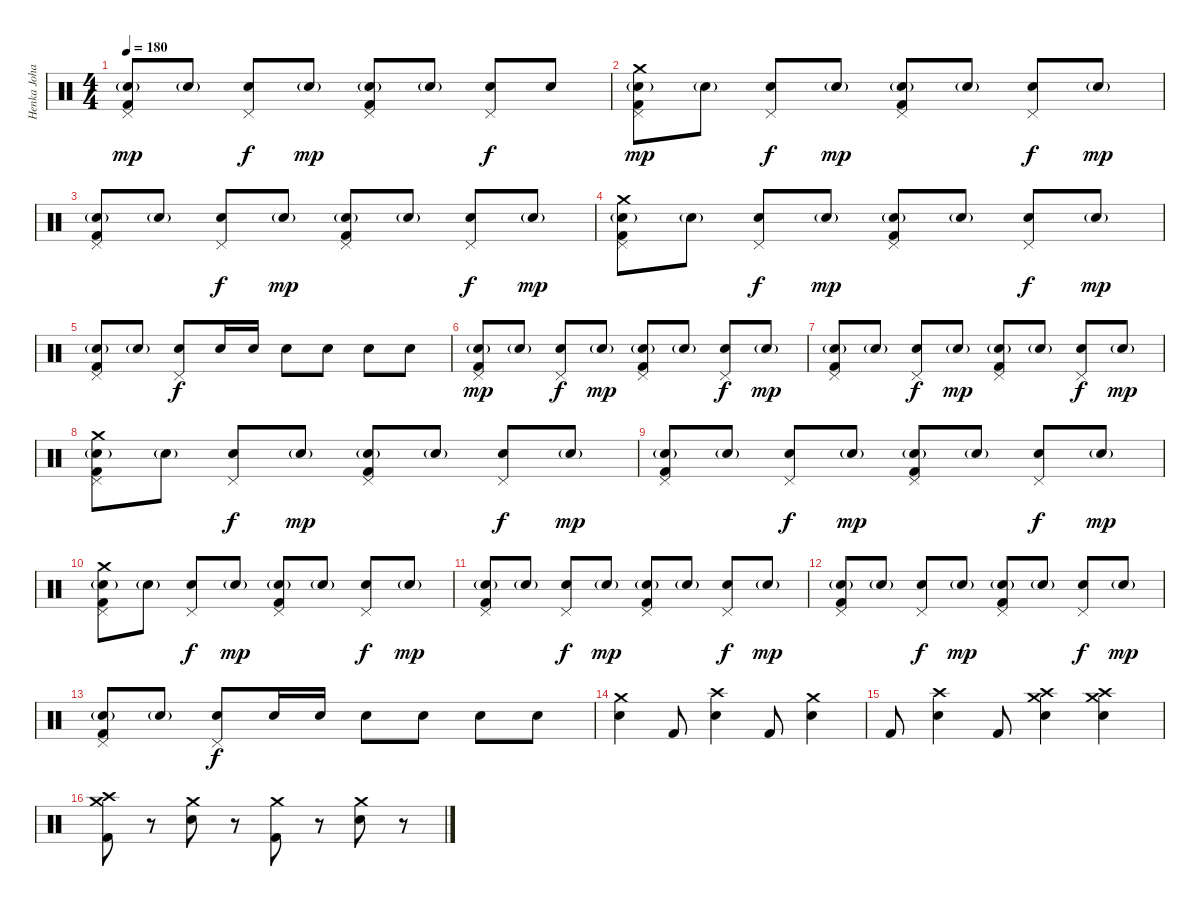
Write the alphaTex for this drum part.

\track ("Henka Johansson" "Henka Joha") {instrument percussion}
\staff {score}
\articulation defaults
\ts (4 4)
\tempo 180
\clef neutral
\ks c
("Pedal Hi-Hat (hit)" "Snare (hit) 2"{g} "Kick (hit) 2").8{dy mp} "Snare (hit) 2"{g}.8 ("Pedal Hi-Hat (hit)" "Snare (hit) 2").8{dy f} "Snare (hit) 2"{g}.8{dy mp} ("Pedal Hi-Hat (hit)" "Snare (hit) 2"{g} "Kick (hit) 2").8 "Snare (hit) 2"{g}.8 ("Pedal Hi-Hat (hit)" "Snare (hit) 2").8{dy f} "Snare (hit) 2".8 |
("Crash medium (hit)" "Pedal Hi-Hat (hit)" "Snare (hit) 2"{g} "Kick (hit) 2").8{dy mp} "Snare (hit) 2"{g}.8 ("Pedal Hi-Hat (hit)" "Snare (hit) 2").8{dy f} "Snare (hit) 2"{g}.8{dy mp} ("Pedal Hi-Hat (hit)" "Snare (hit) 2"{g} "Kick (hit) 2").8 "Snare (hit) 2"{g}.8 ("Pedal Hi-Hat (hit)" "Snare (hit) 2").8{dy f} "Snare (hit) 2"{g}.8{dy mp} |
("Pedal Hi-Hat (hit)" "Snare (hit) 2"{g} "Kick (hit) 2").8 "Snare (hit) 2"{g}.8 ("Pedal Hi-Hat (hit)" "Snare (hit) 2").8{dy f} "Snare (hit) 2"{g}.8{dy mp} ("Pedal Hi-Hat (hit)" "Snare (hit) 2"{g} "Kick (hit) 2").8 "Snare (hit) 2"{g}.8 ("Pedal Hi-Hat (hit)" "Snare (hit) 2").8{dy f} "Snare (hit) 2"{g}.8{dy mp} |
("Crash medium (hit)" "Pedal Hi-Hat (hit)" "Snare (hit) 2"{g} "Kick (hit) 2").8 "Snare (hit) 2"{g}.8 ("Pedal Hi-Hat (hit)" "Snare (hit) 2").8{dy f} "Snare (hit) 2"{g}.8{dy mp} ("Pedal Hi-Hat (hit)" "Snare (hit) 2"{g} "Kick (hit) 2").8 "Snare (hit) 2"{g}.8 ("Pedal Hi-Hat (hit)" "Snare (hit) 2").8{dy f} "Snare (hit) 2"{g}.8{dy mp} |
("Pedal Hi-Hat (hit)" "Snare (hit) 2"{g} "Kick (hit) 2").8 "Snare (hit) 2"{g}.8 ("Pedal Hi-Hat (hit)" "Snare (hit) 2").8{dy f} "Snare (hit) 2".16 "Snare (hit) 2".16 "Snare (hit) 2".8 "Snare (hit) 2".8 "Snare (hit) 2".8 "Snare (hit) 2".8 |
("Pedal Hi-Hat (hit)" "Snare (hit) 2"{g} "Kick (hit) 2").8{dy mp} "Snare (hit) 2"{g}.8 ("Pedal Hi-Hat (hit)" "Snare (hit) 2").8{dy f} "Snare (hit) 2"{g}.8{dy mp} ("Pedal Hi-Hat (hit)" "Snare (hit) 2"{g} "Kick (hit) 2").8 "Snare (hit) 2"{g}.8 ("Pedal Hi-Hat (hit)" "Snare (hit) 2").8{dy f} "Snare (hit) 2"{g}.8{dy mp} |
("Pedal Hi-Hat (hit)" "Snare (hit) 2"{g} "Kick (hit) 2").8 "Snare (hit) 2"{g}.8 ("Pedal Hi-Hat (hit)" "Snare (hit) 2").8{dy f} "Snare (hit) 2"{g}.8{dy mp} ("Pedal Hi-Hat (hit)" "Snare (hit) 2"{g} "Kick (hit) 2").8 "Snare (hit) 2"{g}.8 ("Pedal Hi-Hat (hit)" "Snare (hit) 2").8{dy f} "Snare (hit) 2"{g}.8{dy mp} |
("Crash medium (hit)" "Pedal Hi-Hat (hit)" "Snare (hit) 2"{g} "Kick (hit) 2").8 "Snare (hit) 2"{g}.8 ("Pedal Hi-Hat (hit)" "Snare (hit) 2").8{dy f} "Snare (hit) 2"{g}.8{dy mp} ("Pedal Hi-Hat (hit)" "Snare (hit) 2"{g} "Kick (hit) 2").8 "Snare (hit) 2"{g}.8 ("Pedal Hi-Hat (hit)" "Snare (hit) 2").8{dy f} "Snare (hit) 2"{g}.8{dy mp} |
("Pedal Hi-Hat (hit)" "Snare (hit) 2"{g} "Kick (hit) 2").8 "Snare (hit) 2"{g}.8 ("Pedal Hi-Hat (hit)" "Snare (hit) 2").8{dy f} "Snare (hit) 2"{g}.8{dy mp} ("Pedal Hi-Hat (hit)" "Snare (hit) 2"{g} "Kick (hit) 2").8 "Snare (hit) 2"{g}.8 ("Pedal Hi-Hat (hit)" "Snare (hit) 2").8{dy f} "Snare (hit) 2"{g}.8{dy mp} |
("Crash medium (hit)" "Pedal Hi-Hat (hit)" "Snare (hit) 2"{g} "Kick (hit) 2").8 "Snare (hit) 2"{g}.8 ("Pedal Hi-Hat (hit)" "Snare (hit) 2").8{dy f} "Snare (hit) 2"{g}.8{dy mp} ("Pedal Hi-Hat (hit)" "Snare (hit) 2"{g} "Kick (hit) 2").8 "Snare (hit) 2"{g}.8 ("Pedal Hi-Hat (hit)" "Snare (hit) 2").8{dy f} "Snare (hit) 2"{g}.8{dy mp} |
("Pedal Hi-Hat (hit)" "Snare (hit) 2"{g} "Kick (hit) 2").8 "Snare (hit) 2"{g}.8 ("Pedal Hi-Hat (hit)" "Snare (hit) 2").8{dy f} "Snare (hit) 2"{g}.8{dy mp} ("Pedal Hi-Hat (hit)" "Snare (hit) 2"{g} "Kick (hit) 2").8 "Snare (hit) 2"{g}.8 ("Pedal Hi-Hat (hit)" "Snare (hit) 2").8{dy f} "Snare (hit) 2"{g}.8{dy mp} |
("Pedal Hi-Hat (hit)" "Snare (hit) 2"{g} "Kick (hit) 2").8 "Snare (hit) 2"{g}.8 ("Pedal Hi-Hat (hit)" "Snare (hit) 2").8{dy f} "Snare (hit) 2"{g}.8{dy mp} ("Pedal Hi-Hat (hit)" "Snare (hit) 2"{g} "Kick (hit) 2").8 "Snare (hit) 2"{g}.8 ("Pedal Hi-Hat (hit)" "Snare (hit) 2").8{dy f} "Snare (hit) 2"{g}.8{dy mp} |
("Pedal Hi-Hat (hit)" "Snare (hit) 2"{g} "Kick (hit) 2").8 "Snare (hit) 2"{g}.8 ("Pedal Hi-Hat (hit)" "Snare (hit) 2").8{dy f} "Snare (hit) 2".16 "Snare (hit) 2".16 "Snare (hit) 2".8 "Snare (hit) 2".8 "Snare (hit) 2".8 "Snare (hit) 2".8 |
("Crash medium (hit)" "Snare (hit) 2").4 "Kick (hit) 2".8 ("Crash high (hit)" "Snare (hit) 2").4 "Kick (hit) 2".8 ("Crash medium (hit)" "Snare (hit) 2").4 |
"Kick (hit) 2".8 ("Crash high (hit)" "Snare (hit) 2").4 "Kick (hit) 2".8 ("Crash medium (hit)" "Crash high (hit)" "Snare (hit) 2").4 ("Crash medium (hit)" "Crash high (hit)" "Snare (hit) 2").4 |
("Crash medium (hit)" "Crash high (hit)" "Kick (hit) 2").8 r.8 ("Crash medium (hit)" "Snare (hit) 2").8 r.8 ("Crash medium (hit)" "Kick (hit) 2").8 r.8 ("Crash medium (hit)" "Snare (hit) 2").8 r.8
